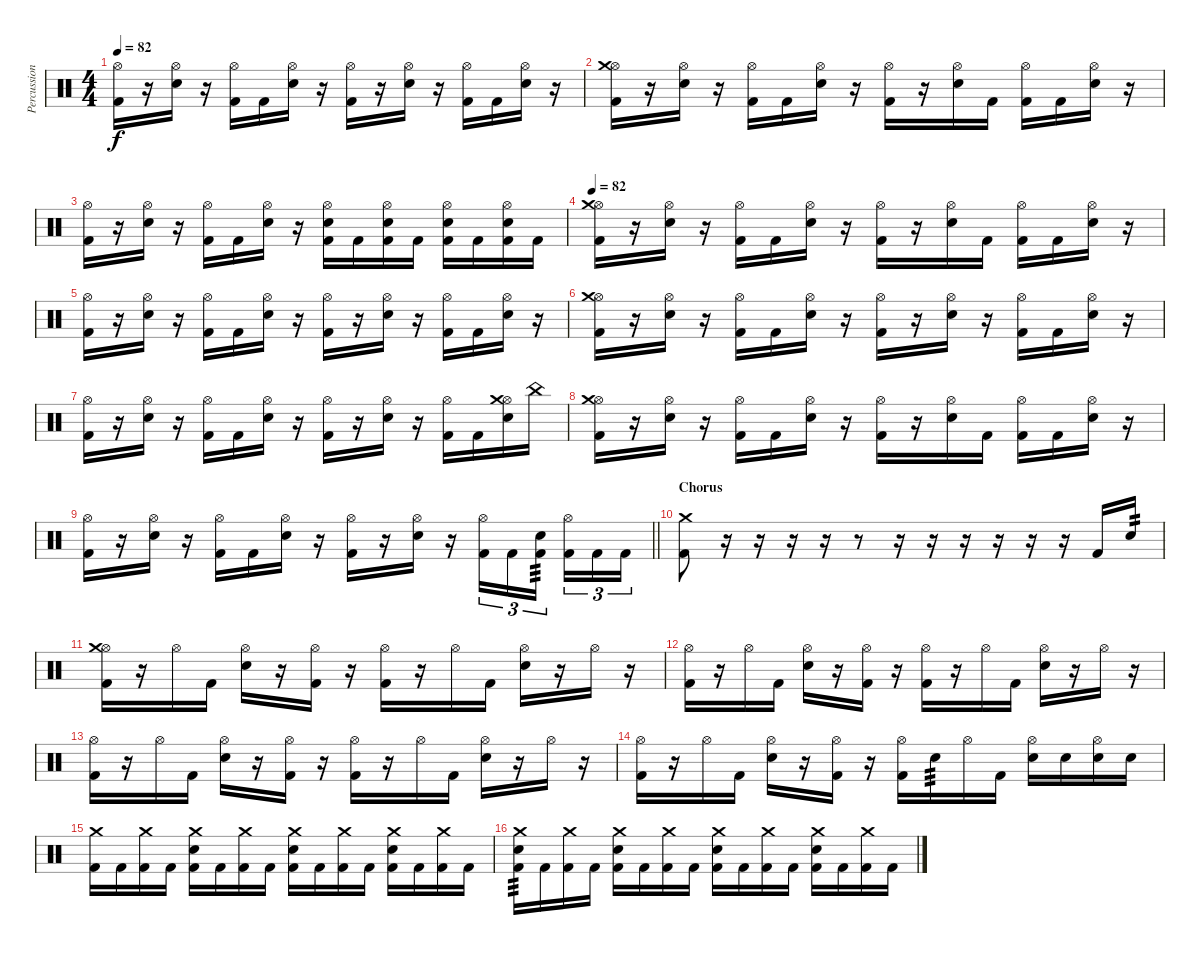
\track ("Percussion" "Percussion") {instrument percussion}
\staff {score}
\articulation defaults
\ts (4 4)
\tempo 82
\clef neutral
\ks c
("Hi-Hat (open)" "Kick (hit) 2").16{dy f} r.16 ("Hi-Hat (open)" "Snare (hit) 2").16 r.16 ("Hi-Hat (open)" "Kick (hit) 2").16 "Kick (hit) 2".16 ("Hi-Hat (open)" "Snare (hit) 2").16 r.16 ("Hi-Hat (open)" "Kick (hit) 2").16 r.16 ("Hi-Hat (open)" "Snare (hit) 2").16 r.16 ("Hi-Hat (open)" "Kick (hit) 2").16 "Kick (hit) 2".16 ("Hi-Hat (open)" "Snare (hit) 2").16 r.16 |
("Hi-Hat (open)" "Crash medium (hit)" "Kick (hit) 2").16 r.16 ("Hi-Hat (open)" "Snare (hit) 2").16 r.16 ("Hi-Hat (open)" "Kick (hit) 2").16 "Kick (hit) 2".16 ("Hi-Hat (open)" "Snare (hit) 2").16 r.16 ("Hi-Hat (open)" "Kick (hit) 2").16 r.16 ("Hi-Hat (open)" "Snare (hit) 2").16 "Kick (hit) 2".16 ("Hi-Hat (open)" "Kick (hit) 2").16 "Kick (hit) 2".16 ("Hi-Hat (open)" "Snare (hit) 2").16 r.16 |
("Hi-Hat (open)" "Kick (hit) 2").16 r.16 ("Hi-Hat (open)" "Snare (hit) 2").16 r.16 ("Hi-Hat (open)" "Kick (hit) 2").16 "Kick (hit) 2".16 ("Hi-Hat (open)" "Snare (hit) 2").16 r.16 ("Hi-Hat (open)" "Snare (hit) 2" "Kick (hit) 2").16 "Kick (hit) 2".16 ("Hi-Hat (open)" "Snare (hit) 2" "Kick (hit) 2").16 "Kick (hit) 2".16 ("Hi-Hat (open)" "Snare (hit) 2" "Kick (hit) 2").16 "Kick (hit) 2".16 ("Hi-Hat (open)" "Snare (hit) 2" "Kick (hit) 2").16 "Kick (hit) 2".16 |
\tempo 82
("Hi-Hat (open)" "Crash medium (hit)" "Kick (hit) 2").16 r.16 ("Hi-Hat (open)" "Snare (hit) 2").16 r.16 ("Hi-Hat (open)" "Kick (hit) 2").16 "Kick (hit) 2".16 ("Hi-Hat (open)" "Snare (hit) 2").16 r.16 ("Hi-Hat (open)" "Kick (hit) 2").16 r.16 ("Hi-Hat (open)" "Snare (hit) 2").16 "Kick (hit) 2".16 ("Hi-Hat (open)" "Kick (hit) 2").16 "Kick (hit) 2".16 ("Hi-Hat (open)" "Snare (hit) 2").16 r.16 |
("Hi-Hat (open)" "Kick (hit) 2").16 r.16 ("Hi-Hat (open)" "Snare (hit) 2").16 r.16 ("Hi-Hat (open)" "Kick (hit) 2").16 "Kick (hit) 2".16 ("Hi-Hat (open)" "Snare (hit) 2").16 r.16 ("Hi-Hat (open)" "Kick (hit) 2").16 r.16 ("Hi-Hat (open)" "Snare (hit) 2").16 r.16 ("Hi-Hat (open)" "Kick (hit) 2").16 "Kick (hit) 2".16 ("Hi-Hat (open)" "Snare (hit) 2").16 r.16 |
("Hi-Hat (open)" "Crash medium (hit)" "Kick (hit) 2").16 r.16 ("Hi-Hat (open)" "Snare (hit) 2").16 r.16 ("Hi-Hat (open)" "Kick (hit) 2").16 "Kick (hit) 2".16 ("Hi-Hat (open)" "Snare (hit) 2").16 r.16 ("Hi-Hat (open)" "Kick (hit) 2").16 r.16 ("Hi-Hat (open)" "Snare (hit) 2").16 r.16 ("Hi-Hat (open)" "Kick (hit) 2").16 "Kick (hit) 2".16 ("Hi-Hat (open)" "Snare (hit) 2").16 r.16 |
("Hi-Hat (open)" "Kick (hit) 2").16 r.16 ("Hi-Hat (open)" "Snare (hit) 2").16 r.16 ("Hi-Hat (open)" "Kick (hit) 2").16 "Kick (hit) 2".16 ("Hi-Hat (open)" "Snare (hit) 2").16 r.16 ("Hi-Hat (open)" "Kick (hit) 2").16 r.16 ("Hi-Hat (open)" "Snare (hit) 2").16 r.16 ("Hi-Hat (open)" "Kick (hit) 2").16 "Kick (hit) 2".16 ("Hi-Hat (open)" "Crash medium (hit)" "Snare (hit) 2").16 "China (hit)".16 |
("Hi-Hat (open)" "Crash medium (hit)" "Kick (hit) 2").16 r.16 ("Hi-Hat (open)" "Snare (hit) 2").16 r.16 ("Hi-Hat (open)" "Kick (hit) 2").16 "Kick (hit) 2".16 ("Hi-Hat (open)" "Snare (hit) 2").16 r.16 ("Hi-Hat (open)" "Kick (hit) 2").16 r.16 ("Hi-Hat (open)" "Snare (hit) 2").16 "Kick (hit) 2".16 ("Hi-Hat (open)" "Kick (hit) 2").16 "Kick (hit) 2".16 ("Hi-Hat (open)" "Snare (hit) 2").16 r.16 |
\barLineRight lightlight
("Hi-Hat (open)" "Kick (hit) 2").16 r.16 ("Hi-Hat (open)" "Snare (hit) 2").16 r.16 ("Hi-Hat (open)" "Kick (hit) 2").16 "Kick (hit) 2".16 ("Hi-Hat (open)" "Snare (hit) 2").16 r.16 ("Hi-Hat (open)" "Kick (hit) 2").16 r.16 ("Hi-Hat (open)" "Snare (hit) 2").16 r.16 ("Hi-Hat (open)" "Kick (hit) 2").16{tu (3 2)} "Kick (hit) 2".16{tu (3 2)} ("Snare (hit) 2" "Kick (hit) 2").16{tu (3 2) tp 3 beam splitsecondary} ("Hi-Hat (open)" "Kick (hit) 2").16{tu (3 2)} "Kick (hit) 2".16{tu (3 2)} "Kick (hit) 2".16{tu (3 2)} |
\section ("" "Chorus")
("Crash medium (hit)" "Kick (hit) 2").8 r.16 r.16 r.16 r.16 r.8 r.16 r.16 r.16 r.16 r.16 r.16 "Kick (hit) 2".16 "Snare (hit) 2".16{tp 2} |
("Hi-Hat (open)" "Crash medium (hit)" "Kick (hit) 2").16 r.16 "Hi-Hat (open)".16 "Kick (hit) 2".16 ("Hi-Hat (open)" "Snare (hit) 2").16 r.16 ("Hi-Hat (open)" "Kick (hit) 2").16 r.16 ("Hi-Hat (open)" "Kick (hit) 2").16 r.16 "Hi-Hat (open)".16 "Kick (hit) 2".16 ("Hi-Hat (open)" "Snare (hit) 2").16 r.16 "Hi-Hat (open)".16 r.16 |
("Hi-Hat (open)" "Kick (hit) 2").16 r.16 "Hi-Hat (open)".16 "Kick (hit) 2".16 ("Hi-Hat (open)" "Snare (hit) 2").16 r.16 ("Hi-Hat (open)" "Kick (hit) 2").16 r.16 ("Hi-Hat (open)" "Kick (hit) 2").16 r.16 "Hi-Hat (open)".16 "Kick (hit) 2".16 ("Hi-Hat (open)" "Snare (hit) 2").16 r.16 "Hi-Hat (open)".16 r.16 |
("Hi-Hat (open)" "Kick (hit) 2").16 r.16 "Hi-Hat (open)".16 "Kick (hit) 2".16 ("Hi-Hat (open)" "Snare (hit) 2").16 r.16 ("Hi-Hat (open)" "Kick (hit) 2").16 r.16 ("Hi-Hat (open)" "Kick (hit) 2").16 r.16 "Hi-Hat (open)".16 "Kick (hit) 2".16 ("Hi-Hat (open)" "Snare (hit) 2").16 r.16 "Hi-Hat (open)".16 r.16 |
("Hi-Hat (open)" "Kick (hit) 2").16 r.16 "Hi-Hat (open)".16 "Kick (hit) 2".16 ("Hi-Hat (open)" "Snare (hit) 2").16 r.16 ("Hi-Hat (open)" "Kick (hit) 2").16 r.16 ("Hi-Hat (open)" "Kick (hit) 2").16 "Snare (hit) 2".16{tp 3} "Hi-Hat (open)".16 "Kick (hit) 2".16 ("Hi-Hat (open)" "Snare (hit) 2").16 "Snare (hit) 2".16 ("Hi-Hat (open)" "Snare (hit) 2").16 "Snare (hit) 2".16 |
("Crash medium (hit)" "Kick (hit) 2").16 "Kick (hit) 2".16 ("Crash medium (hit)" "Kick (hit) 2").16 "Kick (hit) 2".16 ("Crash medium (hit)" "Snare (hit) 2" "Kick (hit) 2").16 "Kick (hit) 2".16 ("Crash medium (hit)" "Kick (hit) 2").16 "Kick (hit) 2".16 ("Crash medium (hit)" "Snare (hit) 2" "Kick (hit) 2").16 "Kick (hit) 2".16 ("Crash medium (hit)" "Kick (hit) 2").16 "Kick (hit) 2".16 ("Crash medium (hit)" "Snare (hit) 2" "Kick (hit) 2").16 "Kick (hit) 2".16 ("Crash medium (hit)" "Kick (hit) 2").16 "Kick (hit) 2".16 |
("Crash medium (hit)" "Snare (hit) 2" "Kick (hit) 2").16{tp 3} "Kick (hit) 2".16 ("Crash medium (hit)" "Kick (hit) 2").16 "Kick (hit) 2".16 ("Crash medium (hit)" "Snare (hit) 2" "Kick (hit) 2").16 "Kick (hit) 2".16 ("Crash medium (hit)" "Kick (hit) 2").16 "Kick (hit) 2".16 ("Crash medium (hit)" "Snare (hit) 2" "Kick (hit) 2").16 "Kick (hit) 2".16 ("Crash medium (hit)" "Kick (hit) 2").16 "Kick (hit) 2".16 ("Crash medium (hit)" "Snare (hit) 2" "Kick (hit) 2").16 "Kick (hit) 2".16 ("Crash medium (hit)" "Kick (hit) 2").16 "Kick (hit) 2".16
